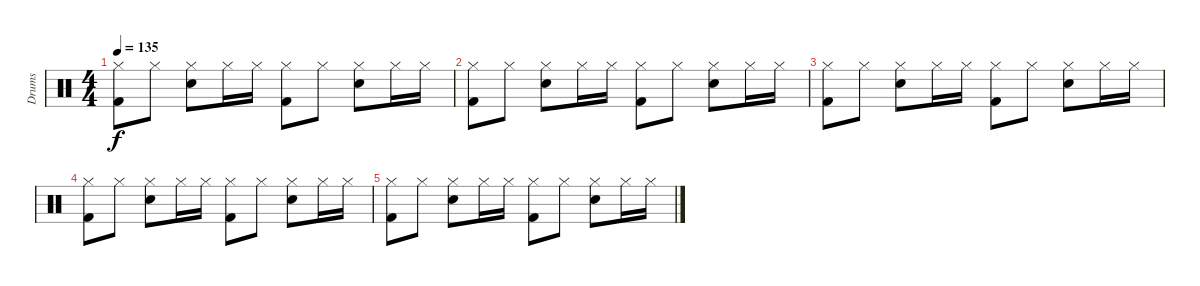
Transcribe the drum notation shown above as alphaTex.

\track ("Drums" "Drums") {instrument percussion}
\staff {score}
\articulation defaults
\ts (4 4)
\tempo 135
\clef neutral
\ks c
("Hi-Hat (closed)" "Kick (hit) 2").8{dy f} "Hi-Hat (closed)".8 ("Hi-Hat (closed)" "Snare (hit) 2").8 "Hi-Hat (closed)".16 "Hi-Hat (closed)".16 ("Hi-Hat (closed)" "Kick (hit) 2").8 "Hi-Hat (closed)".8 ("Hi-Hat (closed)" "Snare (hit) 2").8 "Hi-Hat (closed)".16 "Hi-Hat (closed)".16 |
("Hi-Hat (closed)" "Kick (hit) 2").8 "Hi-Hat (closed)".8 ("Hi-Hat (closed)" "Snare (hit) 2").8 "Hi-Hat (closed)".16 "Hi-Hat (closed)".16 ("Hi-Hat (closed)" "Kick (hit) 2").8 "Hi-Hat (closed)".8 ("Hi-Hat (closed)" "Snare (hit) 2").8 "Hi-Hat (closed)".16 "Hi-Hat (closed)".16 |
("Hi-Hat (closed)" "Kick (hit) 2").8 "Hi-Hat (closed)".8 ("Hi-Hat (closed)" "Snare (hit) 2").8 "Hi-Hat (closed)".16 "Hi-Hat (closed)".16 ("Hi-Hat (closed)" "Kick (hit) 2").8 "Hi-Hat (closed)".8 ("Hi-Hat (closed)" "Snare (hit) 2").8 "Hi-Hat (closed)".16 "Hi-Hat (closed)".16 |
("Hi-Hat (closed)" "Kick (hit) 2").8 "Hi-Hat (closed)".8 ("Hi-Hat (closed)" "Snare (hit) 2").8 "Hi-Hat (closed)".16 "Hi-Hat (closed)".16 ("Hi-Hat (closed)" "Kick (hit) 2").8 "Hi-Hat (closed)".8 ("Hi-Hat (closed)" "Snare (hit) 2").8 "Hi-Hat (closed)".16 "Hi-Hat (closed)".16 |
("Hi-Hat (closed)" "Kick (hit) 2").8 "Hi-Hat (closed)".8 ("Hi-Hat (closed)" "Snare (hit) 2").8 "Hi-Hat (closed)".16 "Hi-Hat (closed)".16 ("Hi-Hat (closed)" "Kick (hit) 2").8 "Hi-Hat (closed)".8 ("Hi-Hat (closed)" "Snare (hit) 2").8 "Hi-Hat (closed)".16 "Hi-Hat (closed)".16
